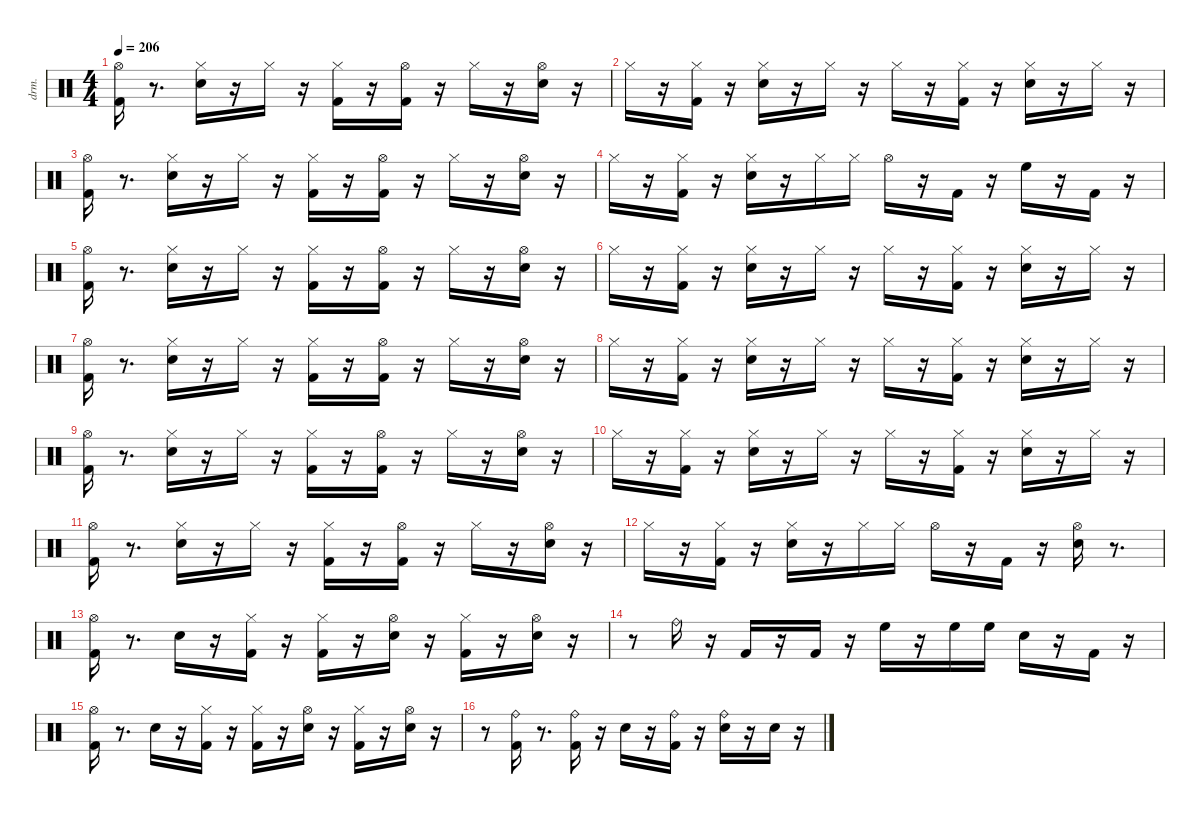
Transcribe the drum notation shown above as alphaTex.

\defaultSystemsLayout 4
\hideDynamics
\bracketExtendMode nobrackets
\otherSystemsTrackNameOrientation horizontal
\track ("EZdrummer 3" "drm.") {instrument percussion}
\staff {score}
\articulation defaults
\ts (4 4)
\tempo 206
\clef neutral
\ks aminor
("Kick (hit) 2" "Hi-Hat (open)"{acc #}).16{dy ff beam Down} r.8{d beam Down} ("Snare (hit) 2" "Hi-Hat (closed)"{acc #}).16{beam Down} r.16{beam Down} "Hi-Hat (closed)"{acc #}.16{dy p beam Down} r.16{beam Down} ("Kick (hit) 2" "Hi-Hat (closed)"{acc #}).16{dy ff beam Down} r.16{beam Down} ("Kick (hit) 2" "Hi-Hat (open)"{acc #}).16{beam Down} r.16{beam Down} "Hi-Hat (closed)"{acc #}.16{dy p beam Down} r.16{beam Down} ("Snare (hit) 2" "Hi-Hat (open)"{acc #}).16{dy ff beam Down} r.16{beam Down} |
"Hi-Hat (closed)"{acc #}.16{dy p beam Down} r.16{beam Down} ("Kick (hit) 2" "Hi-Hat (closed)"{acc #}).16{dy ff beam Down} r.16{beam Down} ("Snare (hit) 2" "Hi-Hat (closed)"{acc #}).16{beam Down} r.16{beam Down} "Hi-Hat (closed)"{acc #}.16{dy p beam Down} r.16{beam Down} "Hi-Hat (closed)"{acc #}.16{dy fff beam Down} r.16{beam Down} ("Kick (hit) 2" "Hi-Hat (closed)"{acc #}).16{dy ff beam Down} r.16{beam Down} ("Snare (hit) 2" "Hi-Hat (closed)"{acc #}).16{beam Down} r.16{beam Down} "Hi-Hat (closed)"{acc #}.16{dy p beam Down} r.16{beam Down} |
("Kick (hit) 2" "Hi-Hat (open)"{acc #}).16{dy ff beam Down} r.8{d beam Down} ("Snare (hit) 2" "Hi-Hat (closed)"{acc #}).16{beam Down} r.16{beam Down} "Hi-Hat (closed)"{acc #}.16{dy p beam Down} r.16{beam Down} ("Kick (hit) 2" "Hi-Hat (closed)"{acc #}).16{dy ff beam Down} r.16{beam Down} ("Kick (hit) 2" "Hi-Hat (open)"{acc #}).16{beam Down} r.16{beam Down} "Hi-Hat (closed)"{acc #}.16{dy p beam Down} r.16{beam Down} ("Snare (hit) 2" "Hi-Hat (open)"{acc #}).16{dy ff beam Down} r.16{beam Down} |
"Hi-Hat (closed)"{acc #}.16{dy p beam Down} r.16{beam Down} ("Kick (hit) 2" "Hi-Hat (closed)"{acc #}).16{dy ff beam Down} r.16{beam Down} ("Snare (hit) 2" "Hi-Hat (closed)"{acc #}).16{beam Down} r.16{beam Down} "Hi-Hat (closed)"{acc #}.16{dy fff beam Down} "Hi-Hat (closed)"{acc #}.16{beam Down} "Hi-Hat (open)"{acc #}.16{beam Down} r.16{beam Down} "Kick (hit) 2".16{dy ff beam Up} r.16{beam Up} "High Floor Tom (hit)".16{dy f beam Down} r.16{beam Down} "Kick (hit) 2".16{beam Up} r.16{beam Up} |
("Kick (hit) 2" "Hi-Hat (open)"{acc #}).16{dy ff beam Down} r.8{d beam Down} ("Snare (hit) 2" "Hi-Hat (closed)"{acc #}).16{beam Down} r.16{beam Down} "Hi-Hat (closed)"{acc #}.16{dy p beam Down} r.16{beam Down} ("Kick (hit) 2" "Hi-Hat (closed)"{acc #}).16{dy ff beam Down} r.16{beam Down} ("Kick (hit) 2" "Hi-Hat (open)"{acc #}).16{beam Down} r.16{beam Down} "Hi-Hat (closed)"{acc #}.16{dy p beam Down} r.16{beam Down} ("Snare (hit) 2" "Hi-Hat (open)"{acc #}).16{dy ff beam Down} r.16{beam Down} |
"Hi-Hat (closed)"{acc #}.16{dy p beam Down} r.16{beam Down} ("Kick (hit) 2" "Hi-Hat (closed)"{acc #}).16{dy ff beam Down} r.16{beam Down} ("Snare (hit) 2" "Hi-Hat (closed)"{acc #}).16{beam Down} r.16{beam Down} "Hi-Hat (closed)"{acc #}.16{dy p beam Down} r.16{beam Down} "Hi-Hat (closed)"{acc #}.16{dy fff beam Down} r.16{beam Down} ("Kick (hit) 2" "Hi-Hat (closed)"{acc #}).16{dy ff beam Down} r.16{beam Down} ("Snare (hit) 2" "Hi-Hat (closed)"{acc #}).16{beam Down} r.16{beam Down} "Hi-Hat (closed)"{acc #}.16{dy p beam Down} r.16{beam Down} |
("Kick (hit) 2" "Hi-Hat (open)"{acc #}).16{dy ff beam Down} r.8{d beam Down} ("Snare (hit) 2" "Hi-Hat (closed)"{acc #}).16{beam Down} r.16{beam Down} "Hi-Hat (closed)"{acc #}.16{dy p beam Down} r.16{beam Down} ("Kick (hit) 2" "Hi-Hat (closed)"{acc #}).16{dy ff beam Down} r.16{beam Down} ("Kick (hit) 2" "Hi-Hat (open)"{acc #}).16{beam Down} r.16{beam Down} "Hi-Hat (closed)"{acc #}.16{dy p beam Down} r.16{beam Down} ("Snare (hit) 2" "Hi-Hat (open)"{acc #}).16{dy ff beam Down} r.16{beam Down} |
"Hi-Hat (closed)"{acc #}.16{dy p beam Down} r.16{beam Down} ("Kick (hit) 2" "Hi-Hat (closed)"{acc #}).16{dy ff beam Down} r.16{beam Down} ("Snare (hit) 2" "Hi-Hat (closed)"{acc #}).16{beam Down} r.16{beam Down} "Hi-Hat (closed)"{acc #}.16{dy p beam Down} r.16{beam Down} "Hi-Hat (closed)"{acc #}.16{dy fff beam Down} r.16{beam Down} ("Kick (hit) 2" "Hi-Hat (closed)"{acc #}).16{dy ff beam Down} r.16{beam Down} ("Snare (hit) 2" "Hi-Hat (closed)"{acc #}).16{beam Down} r.16{beam Down} "Hi-Hat (closed)"{acc #}.16{dy p beam Down} r.16{beam Down} |
("Kick (hit) 2" "Hi-Hat (open)"{acc #}).16{dy ff beam Down} r.8{d beam Down} ("Snare (hit) 2" "Hi-Hat (closed)"{acc #}).16{beam Down} r.16{beam Down} "Hi-Hat (closed)"{acc #}.16{dy p beam Down} r.16{beam Down} ("Kick (hit) 2" "Hi-Hat (closed)"{acc #}).16{dy ff beam Down} r.16{beam Down} ("Kick (hit) 2" "Hi-Hat (open)"{acc #}).16{beam Down} r.16{beam Down} "Hi-Hat (closed)"{acc #}.16{dy p beam Down} r.16{beam Down} ("Snare (hit) 2" "Hi-Hat (open)"{acc #}).16{dy ff beam Down} r.16{beam Down} |
"Hi-Hat (closed)"{acc #}.16{dy p beam Down} r.16{beam Down} ("Kick (hit) 2" "Hi-Hat (closed)"{acc #}).16{dy ff beam Down} r.16{beam Down} ("Snare (hit) 2" "Hi-Hat (closed)"{acc #}).16{beam Down} r.16{beam Down} "Hi-Hat (closed)"{acc #}.16{dy p beam Down} r.16{beam Down} "Hi-Hat (closed)"{acc #}.16{dy fff beam Down} r.16{beam Down} ("Kick (hit) 2" "Hi-Hat (closed)"{acc #}).16{dy ff beam Down} r.16{beam Down} ("Snare (hit) 2" "Hi-Hat (closed)"{acc #}).16{beam Down} r.16{beam Down} "Hi-Hat (closed)"{acc #}.16{dy p beam Down} r.16{beam Down} |
("Kick (hit) 2" "Hi-Hat (open)"{acc #}).16{dy ff beam Down} r.8{d beam Down} ("Snare (hit) 2" "Hi-Hat (closed)"{acc #}).16{beam Down} r.16{beam Down} "Hi-Hat (closed)"{acc #}.16{dy p beam Down} r.16{beam Down} ("Kick (hit) 2" "Hi-Hat (closed)"{acc #}).16{dy ff beam Down} r.16{beam Down} ("Kick (hit) 2" "Hi-Hat (open)"{acc #}).16{beam Down} r.16{beam Down} "Hi-Hat (closed)"{acc #}.16{dy p beam Down} r.16{beam Down} ("Snare (hit) 2" "Hi-Hat (open)"{acc #}).16{dy ff beam Down} r.16{beam Down} |
"Hi-Hat (closed)"{acc #}.16{dy p beam Down} r.16{beam Down} ("Kick (hit) 2" "Hi-Hat (closed)"{acc #}).16{dy ff beam Down} r.16{beam Down} ("Snare (hit) 2" "Hi-Hat (closed)"{acc #}).16{beam Down} r.16{beam Down} "Hi-Hat (closed)"{acc #}.16{dy fff beam Down} "Hi-Hat (closed)"{acc #}.16{beam Down} "Hi-Hat (open)"{acc #}.16{beam Down} r.16{beam Down} "Kick (hit) 2".16{dy ff beam Up} r.16{beam Up} ("Snare (hit) 2" "Hi-Hat (open)"{acc #}).16{beam Down} r.8{d beam Down} |
("Kick (hit) 2" "Hi-Hat (open)"{acc #}).16{dy fff beam Down} r.8{d beam Down} "Snare (hit) 2".16{dy pp beam Down} r.16{beam Down} ("Kick (hit) 2" "Hi-Hat (closed)"{acc #}).16{dy ff beam Down} r.16{beam Down} ("Kick (hit) 2" "Hi-Hat (closed)"{acc #}).16{beam Down} r.16{beam Down} ("Snare (hit) 2" "Hi-Hat (open)"{acc #}).16{beam Down} r.16{beam Down} ("Kick (hit) 2" "Hi-Hat (closed)"{acc #}).16{beam Down} r.16{beam Down} ("Snare (hit) 2" "Hi-Hat (open)"{acc #}).16{dy fff beam Down} r.16{beam Down} |
r.8{beam Down} "Ride (bell)".16{beam Down} r.16{beam Down} "Kick (hit) 2".16{dy mf beam Up} r.16{beam Up} "Kick (hit) 2".16{dy fff beam Up} r.16{beam Up} "High Floor Tom (hit)".16{dy ff beam Down} r.16{beam Down} "High Floor Tom (hit)".16{dy mf beam Down} "High Floor Tom (hit)".16{dy ppp beam Down} "Snare (hit) 2".16{dy ff beam Down} r.16{beam Down} "Kick (hit) 2".16{dy mp beam Up} r.16{beam Up} |
("Kick (hit) 2" "Hi-Hat (open)"{acc #}).16{dy ff beam Down} r.8{d beam Down} "Snare (hit) 2".16{dy pp beam Down} r.16{beam Down} ("Kick (hit) 2" "Hi-Hat (closed)"{acc #}).16{dy ff beam Down} r.16{beam Down} ("Kick (hit) 2" "Hi-Hat (closed)"{acc #}).16{beam Down} r.16{beam Down} ("Snare (hit) 2" "Hi-Hat (open)"{acc #}).16{beam Down} r.16{beam Down} ("Kick (hit) 2" "Hi-Hat (closed)"{acc #}).16{beam Down} r.16{beam Down} ("Snare (hit) 2" "Hi-Hat (open)"{acc #}).16{dy fff beam Down} r.16{beam Down} |
r.8{beam Down} ("Kick (hit) 2" "Ride (bell)").16{dy ff beam Down} r.8{d beam Down} ("Kick (hit) 2" "Ride (bell)").16{beam Down} r.16{beam Down} "Snare (hit) 2".16{beam Down} r.16{beam Down} ("Kick (hit) 2" "Ride (bell)").16{beam Down} r.16{beam Down} ("Snare (hit) 2" "Ride (bell)").16{beam Down} r.16{beam Down} "Snare (hit) 2".16{dy mp beam Down} r.16{beam Down}
